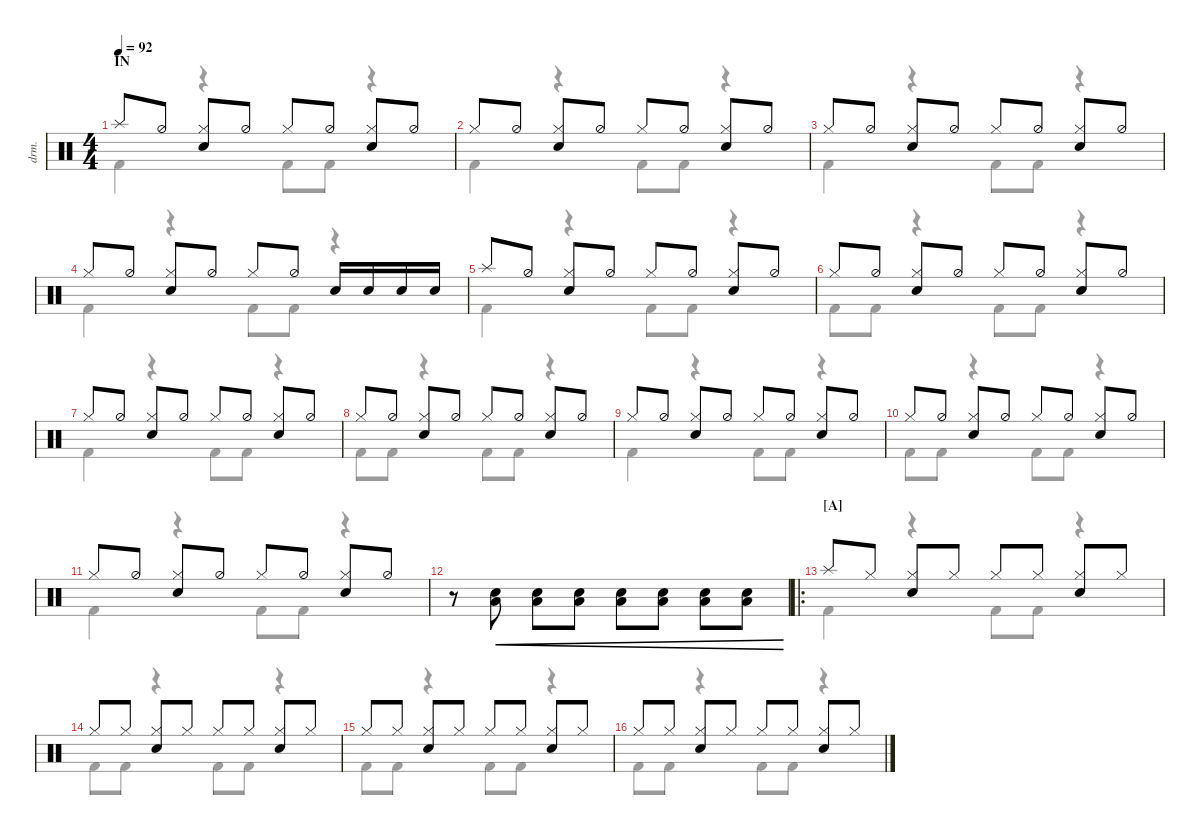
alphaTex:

\defaultSystemsLayout 4
\hideDynamics
\bracketExtendMode nobrackets
\track ("Drumkit" "drm.") {defaultSystemsLayout 4 instrument percussion}
\staff {score}
\articulation defaults
\voice
\ts (4 4)
\section ("" "IN")
\tempo 92
\clef neutral
\ks c "Splash (hit)".8{dy mf beam Up} "Hi-Hat (half)".8{beam Up}
("Hi-Hat (closed)" "Snare (hit) 2").8{beam Up} "Hi-Hat (half)".8{beam Up} "Hi-Hat (closed)".8{beam Up} "Hi-Hat (half)".8{beam Up} ("Hi-Hat (closed)" "Snare (hit) 2").8{beam Up} "Hi-Hat (half)".8{beam Up} |
"Hi-Hat (closed)".8{beam Up} "Hi-Hat (half)".8{beam Up} ("Hi-Hat (closed)" "Snare (hit) 2").8{beam Up} "Hi-Hat (half)".8{beam Up} "Hi-Hat (closed)".8{beam Up} "Hi-Hat (half)".8{beam Up} ("Hi-Hat (closed)" "Snare (hit) 2").8{beam Up} "Hi-Hat (half)".8{beam Up} |
"Hi-Hat (closed)".8{beam Up} "Hi-Hat (half)".8{beam Up} ("Hi-Hat (closed)" "Snare (hit) 2").8{beam Up} "Hi-Hat (half)".8{beam Up} "Hi-Hat (closed)".8{beam Up} "Hi-Hat (half)".8{beam Up} ("Hi-Hat (closed)" "Snare (hit) 2").8{beam Up} "Hi-Hat (half)".8{beam Up} |
"Hi-Hat (closed)".8{beam Up} "Hi-Hat (half)".8{beam Up} ("Hi-Hat (closed)" "Snare (hit) 2").8{beam Up} "Hi-Hat (half)".8{beam Up} "Hi-Hat (closed)".8{beam Up} "Hi-Hat (half)".8{beam Up} "Snare (hit) 2".16{beam Up} "Snare (hit) 2".16{beam Up} "Snare (hit) 2".16{beam Up} "Snare (hit) 2".16{beam Up} |
"Splash (hit)".8{beam Up} "Hi-Hat (half)".8{beam Up} ("Hi-Hat (closed)" "Snare (hit) 2").8{beam Up} "Hi-Hat (half)".8{beam Up} "Hi-Hat (closed)".8{beam Up} "Hi-Hat (half)".8{beam Up} ("Hi-Hat (closed)" "Snare (hit) 2").8{beam Up} "Hi-Hat (half)".8{beam Up} |
"Hi-Hat (closed)".8{beam Up} "Hi-Hat (half)".8{beam Up} ("Hi-Hat (closed)" "Snare (hit) 2").8{beam Up} "Hi-Hat (half)".8{beam Up} "Hi-Hat (closed)".8{beam Up} "Hi-Hat (half)".8{beam Up} ("Hi-Hat (closed)" "Snare (hit) 2").8{beam Up} "Hi-Hat (half)".8{beam Up} |
"Hi-Hat (closed)".8{beam Up} "Hi-Hat (half)".8{beam Up} ("Hi-Hat (closed)" "Snare (hit) 2").8{beam Up} "Hi-Hat (half)".8{beam Up} "Hi-Hat (closed)".8{beam Up} "Hi-Hat (half)".8{beam Up} ("Hi-Hat (closed)" "Snare (hit) 2").8{beam Up} "Hi-Hat (half)".8{beam Up} |
"Hi-Hat (closed)".8{beam Up} "Hi-Hat (half)".8{beam Up} ("Hi-Hat (closed)" "Snare (hit) 2").8{beam Up} "Hi-Hat (half)".8{beam Up} "Hi-Hat (closed)".8{beam Up} "Hi-Hat (half)".8{beam Up} ("Hi-Hat (closed)" "Snare (hit) 2").8{beam Up} "Hi-Hat (half)".8{beam Up} |
"Hi-Hat (closed)".8{beam Up} "Hi-Hat (half)".8{beam Up} ("Hi-Hat (closed)" "Snare (hit) 2").8{beam Up} "Hi-Hat (half)".8{beam Up} "Hi-Hat (closed)".8{beam Up} "Hi-Hat (half)".8{beam Up} ("Hi-Hat (closed)" "Snare (hit) 2").8{beam Up} "Hi-Hat (half)".8{beam Up} |
"Hi-Hat (closed)".8{beam Up} "Hi-Hat (half)".8{beam Up} ("Hi-Hat (closed)" "Snare (hit) 2").8{beam Up} "Hi-Hat (half)".8{beam Up} "Hi-Hat (closed)".8{beam Up} "Hi-Hat (half)".8{beam Up} ("Hi-Hat (closed)" "Snare (hit) 2").8{beam Up} "Hi-Hat (half)".8{beam Up} |
"Hi-Hat (closed)".8{beam Up} "Hi-Hat (half)".8{beam Up} ("Hi-Hat (closed)" "Snare (hit) 2").8{beam Up} "Hi-Hat (half)".8{beam Up} "Hi-Hat (closed)".8{beam Up} "Hi-Hat (half)".8{beam Up} ("Hi-Hat (closed)" "Snare (hit) 2").8{beam Up} "Hi-Hat (half)".8{beam Up} |
r.8{beam Down} ("Low Tom (hit)" "Snare (hit) 2").8{cre beam Down} ("Low Tom (hit)" "Snare (hit) 2").8{cre beam Down} ("Low Tom (hit)" "Snare (hit) 2").8{cre beam Down} ("Low Tom (hit)" "Snare (hit) 2").8{cre beam Down} ("Low Tom (hit)" "Snare (hit) 2").8{cre beam Down} ("Low Tom (hit)" "Snare (hit) 2").8{cre beam Down} ("Low Tom (hit)" "Snare (hit) 2").8{cre beam Down} |
\ro
\section ("A" "")
"Splash (hit)".8{beam Up} "Hi-Hat (closed)".8{beam Up} ("Hi-Hat (closed)" "Snare (hit) 2").8{beam Up} "Hi-Hat (closed)".8{beam Up} "Hi-Hat (closed)".8{beam Up} "Hi-Hat (closed)".8{beam Up} ("Hi-Hat (closed)" "Snare (hit) 2").8{beam Up} "Hi-Hat (closed)".8{beam Up} |
"Hi-Hat (closed)".8{beam Up} "Hi-Hat (closed)".8{beam Up} ("Hi-Hat (closed)" "Snare (hit) 2").8{beam Up} "Hi-Hat (closed)".8{beam Up} "Hi-Hat (closed)".8{beam Up} "Hi-Hat (closed)".8{beam Up} ("Hi-Hat (closed)" "Snare (hit) 2").8{beam Up} "Hi-Hat (closed)".8{beam Up} |
"Hi-Hat (closed)".8{beam Up} "Hi-Hat (closed)".8{beam Up} ("Hi-Hat (closed)" "Snare (hit) 2").8{beam Up} "Hi-Hat (closed)".8{beam Up} "Hi-Hat (closed)".8{beam Up} "Hi-Hat (closed)".8{beam Up} ("Hi-Hat (closed)" "Snare (hit) 2").8{beam Up} "Hi-Hat (closed)".8{beam Up} |
"Hi-Hat (closed)".8{beam Up} "Hi-Hat (closed)".8{beam Up} ("Hi-Hat (closed)" "Snare (hit) 2").8{beam Up} "Hi-Hat (closed)".8{beam Up} "Hi-Hat (closed)".8{beam Up} "Hi-Hat (closed)".8{beam Up} ("Hi-Hat (closed)" "Snare (hit) 2").8{beam Up} "Hi-Hat (closed)".8{beam Up}
\voice
\clef neutral
\ottava regular
\simile none
\ks c "Kick (hit) 2".4{dy mf beam Down}
r.4{beam Down} "Kick (hit) 2".8{beam Down} "Kick (hit) 2".8{beam Down} r.4{beam Down} |
"Kick (hit) 2".4{beam Down} r.4{beam Down} "Kick (hit) 2".8{beam Down} "Kick (hit) 2".8{beam Down} r.4{beam Down} |
"Kick (hit) 2".4{beam Down} r.4{beam Down} "Kick (hit) 2".8{beam Down} "Kick (hit) 2".8{beam Down} r.4{beam Down} |
"Kick (hit) 2".4{beam Down} r.4{beam Down} "Kick (hit) 2".8{beam Down} "Kick (hit) 2".8{beam Down} r.4{beam Down} |
"Kick (hit) 2".4{beam Down} r.4{beam Down} "Kick (hit) 2".8{beam Down} "Kick (hit) 2".8{beam Down} r.4{beam Down} |
"Kick (hit) 2".8{beam Down} "Kick (hit) 2".8{beam Down} r.4{beam Down} "Kick (hit) 2".8{beam Down} "Kick (hit) 2".8{beam Down} r.4{beam Down} |
"Kick (hit) 2".4{beam Down} r.4{beam Down} "Kick (hit) 2".8{beam Down} "Kick (hit) 2".8{beam Down} r.4{beam Down} |
"Kick (hit) 2".8{beam Down} "Kick (hit) 2".8{beam Down} r.4{beam Down} "Kick (hit) 2".8{beam Down} "Kick (hit) 2".8{beam Down} r.4{beam Down} |
"Kick (hit) 2".4{beam Down} r.4{beam Down} "Kick (hit) 2".8{beam Down} "Kick (hit) 2".8{beam Down} r.4{beam Down} |
"Kick (hit) 2".8{beam Down} "Kick (hit) 2".8{beam Down} r.4{beam Down} "Kick (hit) 2".8{beam Down} "Kick (hit) 2".8{beam Down} r.4{beam Down} |
"Kick (hit) 2".4{beam Down} r.4{beam Down} "Kick (hit) 2".8{beam Down} "Kick (hit) 2".8{beam Down} r.4{beam Down} |
|
"Kick (hit) 2".4{beam Down} r.4{beam Down} "Kick (hit) 2".8{beam Down} "Kick (hit) 2".8{beam Down} r.4{beam Down} |
"Kick (hit) 2".8{beam Down} "Kick (hit) 2".8{beam Down} r.4{beam Down} "Kick (hit) 2".8{beam Down} "Kick (hit) 2".8{beam Down} r.4{beam Down} |
"Kick (hit) 2".8{beam Down} "Kick (hit) 2".8{beam Down} r.4{beam Down} "Kick (hit) 2".8{beam Down} "Kick (hit) 2".8{beam Down} r.4{beam Down} |
"Kick (hit) 2".8{beam Down} "Kick (hit) 2".8{beam Down} r.4{beam Down} "Kick (hit) 2".8{beam Down} "Kick (hit) 2".8{beam Down} r.4{beam Down}
